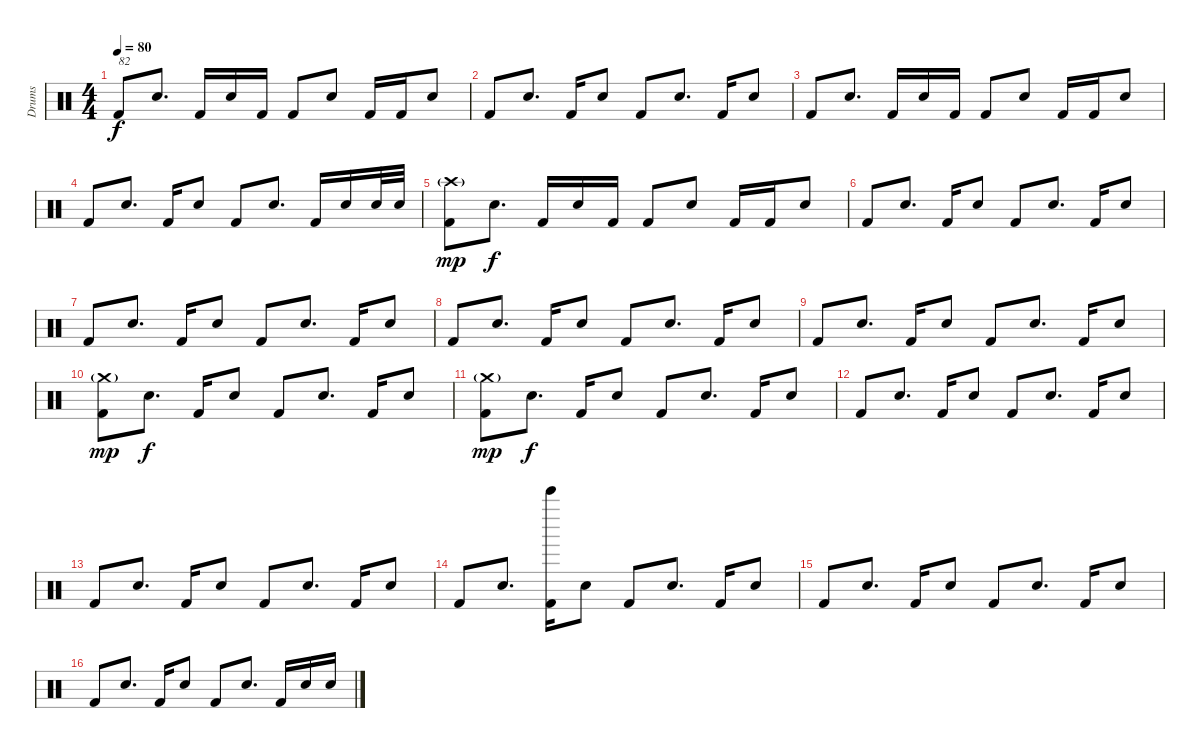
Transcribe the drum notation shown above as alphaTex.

\track ("Drums" "Drums") {instrument percussion}
\staff {score}
\articulation defaults
\ts (4 4)
\tempo 80
\clef neutral
\ks c "Kick (hit) 2".8{txt "82" dy f} "Snare (hit) 2".8{d} "Kick (hit) 2".16 "Snare (hit) 2".16 "Kick (hit) 2".16 "Kick (hit) 2".8 "Snare (hit) 2".8 "Kick (hit) 2".16 "Kick (hit) 2".16 "Snare (hit) 2".8
|
"Kick (hit) 2".8 "Snare (hit) 2".8{d} "Kick (hit) 2".16 "Snare (hit) 2".8 "Kick (hit) 2".8 "Snare (hit) 2".8{d} "Kick (hit) 2".16 "Snare (hit) 2".8 |
"Kick (hit) 2".8 "Snare (hit) 2".8{d} "Kick (hit) 2".16 "Snare (hit) 2".16 "Kick (hit) 2".16 "Kick (hit) 2".8 "Snare (hit) 2".8 "Kick (hit) 2".16 "Kick (hit) 2".16 "Snare (hit) 2".8 |
"Kick (hit) 2".8 "Snare (hit) 2".8{d} "Kick (hit) 2".16 "Snare (hit) 2".8 "Kick (hit) 2".8 "Snare (hit) 2".8{d} "Kick (hit) 2".16 "Snare (hit) 2".16 "Snare (hit) 2".32 "Snare (hit) 2".32 |
("Kick (hit) 2" "Crash high (hit)"{g}).8{dy mp} "Snare (hit) 2".8{d dy f} "Kick (hit) 2".16 "Snare (hit) 2".16 "Kick (hit) 2".16 "Kick (hit) 2".8 "Snare (hit) 2".8 "Kick (hit) 2".16 "Kick (hit) 2".16 "Snare (hit) 2".8 |
"Kick (hit) 2".8 "Snare (hit) 2".8{d} "Kick (hit) 2".16 "Snare (hit) 2".8 "Kick (hit) 2".8 "Snare (hit) 2".8{d} "Kick (hit) 2".16 "Snare (hit) 2".8 |
"Kick (hit) 2".8 "Snare (hit) 2".8{d} "Kick (hit) 2".16 "Snare (hit) 2".8 "Kick (hit) 2".8 "Snare (hit) 2".8{d} "Kick (hit) 2".16 "Snare (hit) 2".8 |
"Kick (hit) 2".8 "Snare (hit) 2".8{d} "Kick (hit) 2".16 "Snare (hit) 2".8 "Kick (hit) 2".8 "Snare (hit) 2".8{d} "Kick (hit) 2".16 "Snare (hit) 2".8 |
"Kick (hit) 2".8 "Snare (hit) 2".8{d} "Kick (hit) 2".16 "Snare (hit) 2".8 "Kick (hit) 2".8 "Snare (hit) 2".8{d} "Kick (hit) 2".16 "Snare (hit) 2".8 |
("Kick (hit) 2" "Crash medium (hit)"{g}).8{dy mp} "Snare (hit) 2".8{d dy f} "Kick (hit) 2".16 "Snare (hit) 2".8 "Kick (hit) 2".8 "Snare (hit) 2".8{d} "Kick (hit) 2".16 "Snare (hit) 2".8 |
("Kick (hit) 2" "Crash medium (hit)"{g}).8{dy mp} "Snare (hit) 2".8{d dy f} "Kick (hit) 2".16 "Snare (hit) 2".8 "Kick (hit) 2".8 "Snare (hit) 2".8{d} "Kick (hit) 2".16 "Snare (hit) 2".8 |
"Kick (hit) 2".8 "Snare (hit) 2".8{d} "Kick (hit) 2".16 "Snare (hit) 2".8 "Kick (hit) 2".8 "Snare (hit) 2".8{d} "Kick (hit) 2".16 "Snare (hit) 2".8 |
"Kick (hit) 2".8 "Snare (hit) 2".8{d} "Kick (hit) 2".16 "Snare (hit) 2".8 "Kick (hit) 2".8 "Snare (hit) 2".8{d} "Kick (hit) 2".16 "Snare (hit) 2".8 |
"Kick (hit) 2".8 "Snare (hit) 2".8{d} ("Kick (hit) 2" "Bell Tree (hit)").16 "Snare (hit) 2".8 "Kick (hit) 2".8 "Snare (hit) 2".8{d} "Kick (hit) 2".16 "Snare (hit) 2".8 |
"Kick (hit) 2".8 "Snare (hit) 2".8{d} "Kick (hit) 2".16 "Snare (hit) 2".8 "Kick (hit) 2".8 "Snare (hit) 2".8{d} "Kick (hit) 2".16 "Snare (hit) 2".8 |
"Kick (hit) 2".8 "Snare (hit) 2".8{d} "Kick (hit) 2".16 "Snare (hit) 2".8 "Kick (hit) 2".8 "Snare (hit) 2".8{d} "Kick (hit) 2".16 "Snare (hit) 2".16 "Snare (hit) 2".16
